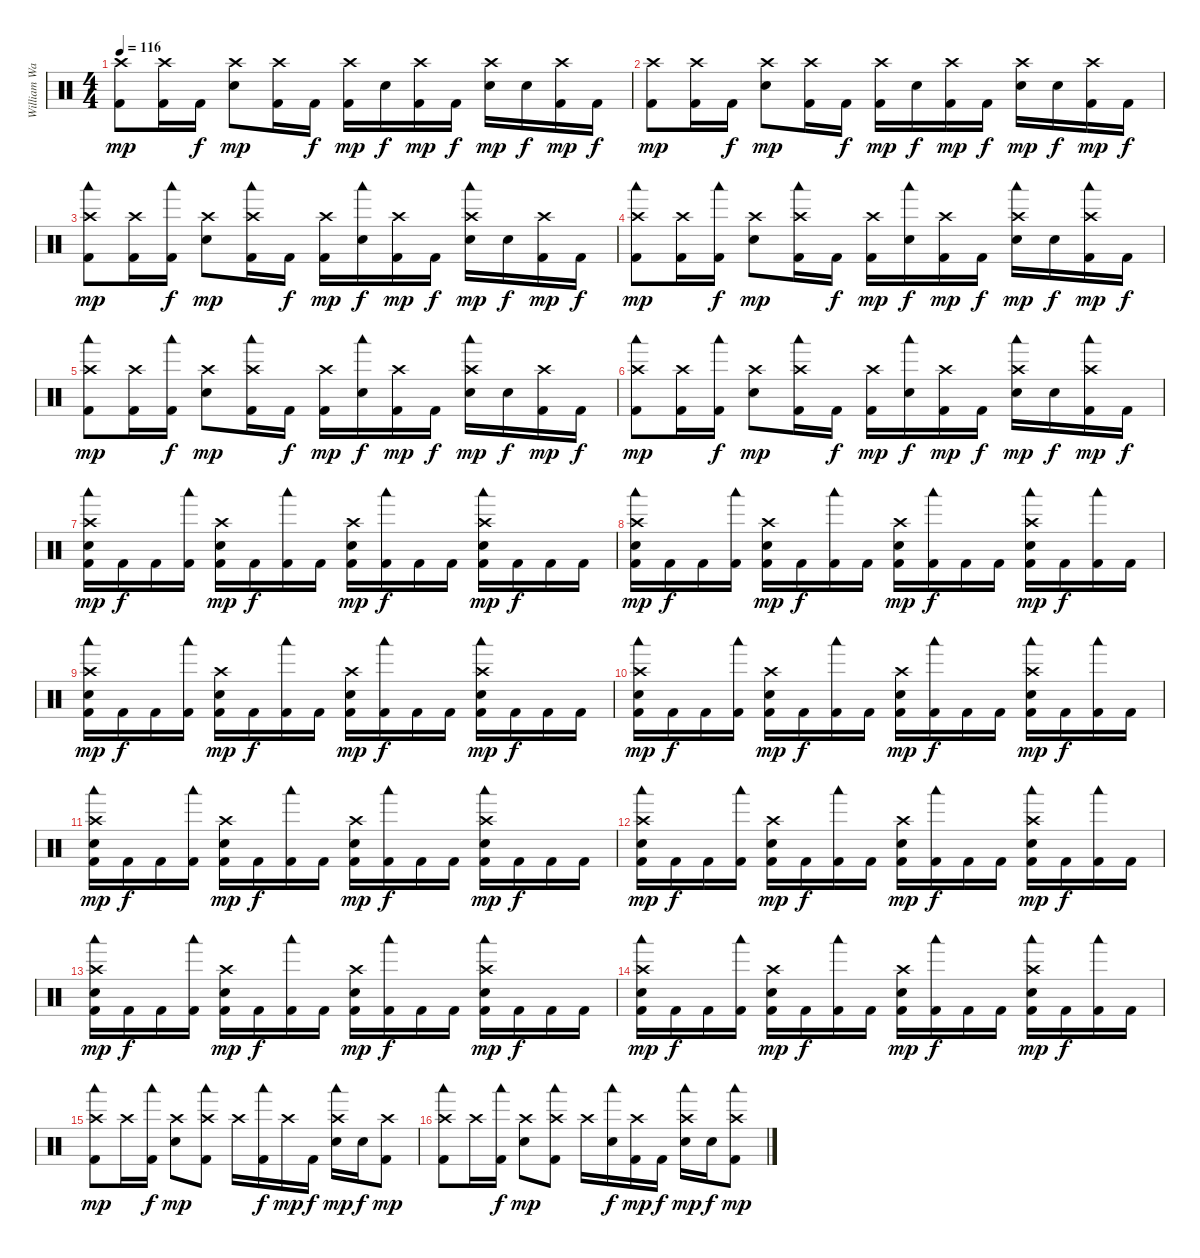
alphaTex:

\track ("William Ward" "William Wa") {instrument percussion}
\staff {score}
\articulation defaults
\ts (4 4)
\tempo 116
\clef neutral
\ks c
("Crash high (hit)" "Kick (hit) 2").8{dy mp} ("Crash high (hit)" "Kick (hit) 2").16 "Kick (hit) 2".16{dy f} ("Crash high (hit)" "Snare (hit) 2").8{dy mp} ("Crash high (hit)" "Kick (hit) 2").16 "Kick (hit) 2".16{dy f} ("Crash high (hit)" "Kick (hit) 2").16{dy mp} "Snare (hit) 2".16{dy f} ("Crash high (hit)" "Kick (hit) 2").16{dy mp} "Kick (hit) 2".16{dy f} ("Crash high (hit)" "Snare (hit) 2").16{dy mp} "Snare (hit) 2".16{dy f} ("Crash high (hit)" "Kick (hit) 2").16{dy mp} "Kick (hit) 2".16{dy f} |
("Crash high (hit)" "Kick (hit) 2").8{dy mp} ("Crash high (hit)" "Kick (hit) 2").16 "Kick (hit) 2".16{dy f} ("Crash high (hit)" "Snare (hit) 2").8{dy mp} ("Crash high (hit)" "Kick (hit) 2").16 "Kick (hit) 2".16{dy f} ("Crash high (hit)" "Kick (hit) 2").16{dy mp} "Snare (hit) 2".16{dy f} ("Crash high (hit)" "Kick (hit) 2").16{dy mp} "Kick (hit) 2".16{dy f} ("Crash high (hit)" "Snare (hit) 2").16{dy mp} "Snare (hit) 2".16{dy f} ("Crash high (hit)" "Kick (hit) 2").16{dy mp} "Kick (hit) 2".16{dy f} |
("Crash high (hit)" "Woodblock low (hit)" "Kick (hit) 2").8{dy mp} ("Crash high (hit)" "Kick (hit) 2").16 ("Woodblock low (hit)" "Kick (hit) 2").16{dy f} ("Crash high (hit)" "Snare (hit) 2").8{dy mp} ("Crash high (hit)" "Woodblock low (hit)" "Kick (hit) 2").16 "Kick (hit) 2".16{dy f} ("Crash high (hit)" "Kick (hit) 2").16{dy mp} ("Woodblock low (hit)" "Snare (hit) 2").16{dy f} ("Crash high (hit)" "Kick (hit) 2").16{dy mp} "Kick (hit) 2".16{dy f} ("Crash high (hit)" "Woodblock low (hit)" "Snare (hit) 2").16{dy mp} "Snare (hit) 2".16{dy f} ("Crash high (hit)" "Kick (hit) 2").16{dy mp} "Kick (hit) 2".16{dy f} |
("Crash high (hit)" "Woodblock low (hit)" "Kick (hit) 2").8{dy mp} ("Crash high (hit)" "Kick (hit) 2").16 ("Woodblock low (hit)" "Kick (hit) 2").16{dy f} ("Crash high (hit)" "Snare (hit) 2").8{dy mp} ("Crash high (hit)" "Woodblock low (hit)" "Kick (hit) 2").16 "Kick (hit) 2".16{dy f} ("Crash high (hit)" "Kick (hit) 2").16{dy mp} ("Woodblock low (hit)" "Snare (hit) 2").16{dy f} ("Crash high (hit)" "Kick (hit) 2").16{dy mp} "Kick (hit) 2".16{dy f} ("Crash high (hit)" "Woodblock low (hit)" "Snare (hit) 2").16{dy mp} "Snare (hit) 2".16{dy f} ("Crash high (hit)" "Woodblock low (hit)" "Kick (hit) 2").16{dy mp} "Kick (hit) 2".16{dy f} |
("Crash high (hit)" "Woodblock low (hit)" "Kick (hit) 2").8{dy mp} ("Crash high (hit)" "Kick (hit) 2").16 ("Woodblock low (hit)" "Kick (hit) 2").16{dy f} ("Crash high (hit)" "Snare (hit) 2").8{dy mp} ("Crash high (hit)" "Woodblock low (hit)" "Kick (hit) 2").16 "Kick (hit) 2".16{dy f} ("Crash high (hit)" "Kick (hit) 2").16{dy mp} ("Woodblock low (hit)" "Snare (hit) 2").16{dy f} ("Crash high (hit)" "Kick (hit) 2").16{dy mp} "Kick (hit) 2".16{dy f} ("Crash high (hit)" "Woodblock low (hit)" "Snare (hit) 2").16{dy mp} "Snare (hit) 2".16{dy f} ("Crash high (hit)" "Kick (hit) 2").16{dy mp} "Kick (hit) 2".16{dy f} |
("Crash high (hit)" "Woodblock low (hit)" "Kick (hit) 2").8{dy mp} ("Crash high (hit)" "Kick (hit) 2").16 ("Woodblock low (hit)" "Kick (hit) 2").16{dy f} ("Crash high (hit)" "Snare (hit) 2").8{dy mp} ("Crash high (hit)" "Woodblock low (hit)" "Kick (hit) 2").16 "Kick (hit) 2".16{dy f} ("Crash high (hit)" "Kick (hit) 2").16{dy mp} ("Woodblock low (hit)" "Snare (hit) 2").16{dy f} ("Crash high (hit)" "Kick (hit) 2").16{dy mp} "Kick (hit) 2".16{dy f} ("Crash high (hit)" "Woodblock low (hit)" "Snare (hit) 2").16{dy mp} "Snare (hit) 2".16{dy f} ("Crash high (hit)" "Woodblock low (hit)" "Kick (hit) 2").16{dy mp} "Kick (hit) 2".16{dy f} |
("Crash high (hit)" "Woodblock low (hit)" "Snare (hit) 2" "Kick (hit) 2").16{dy mp} "Kick (hit) 2".16{dy f} "Kick (hit) 2".16 ("Woodblock low (hit)" "Kick (hit) 2").16 ("Crash high (hit)" "Snare (hit) 2" "Kick (hit) 2").16{dy mp} "Kick (hit) 2".16{dy f} ("Woodblock low (hit)" "Kick (hit) 2").16 "Kick (hit) 2".16 ("Crash high (hit)" "Snare (hit) 2" "Kick (hit) 2").16{dy mp} ("Woodblock low (hit)" "Kick (hit) 2").16{dy f} "Kick (hit) 2".16 "Kick (hit) 2".16 ("Crash high (hit)" "Woodblock low (hit)" "Snare (hit) 2" "Kick (hit) 2").16{dy mp} "Kick (hit) 2".16{dy f} "Kick (hit) 2".16 "Kick (hit) 2".16 |
("Crash high (hit)" "Woodblock low (hit)" "Snare (hit) 2" "Kick (hit) 2").16{dy mp} "Kick (hit) 2".16{dy f} "Kick (hit) 2".16 ("Woodblock low (hit)" "Kick (hit) 2").16 ("Crash high (hit)" "Snare (hit) 2" "Kick (hit) 2").16{dy mp} "Kick (hit) 2".16{dy f} ("Woodblock low (hit)" "Kick (hit) 2").16 "Kick (hit) 2".16 ("Crash high (hit)" "Snare (hit) 2" "Kick (hit) 2").16{dy mp} ("Woodblock low (hit)" "Kick (hit) 2").16{dy f} "Kick (hit) 2".16 "Kick (hit) 2".16 ("Crash high (hit)" "Woodblock low (hit)" "Snare (hit) 2" "Kick (hit) 2").16{dy mp} "Kick (hit) 2".16{dy f} ("Woodblock low (hit)" "Kick (hit) 2").16 "Kick (hit) 2".16 |
("Crash high (hit)" "Woodblock low (hit)" "Snare (hit) 2" "Kick (hit) 2").16{dy mp} "Kick (hit) 2".16{dy f} "Kick (hit) 2".16 ("Woodblock low (hit)" "Kick (hit) 2").16 ("Crash high (hit)" "Snare (hit) 2" "Kick (hit) 2").16{dy mp} "Kick (hit) 2".16{dy f} ("Woodblock low (hit)" "Kick (hit) 2").16 "Kick (hit) 2".16 ("Crash high (hit)" "Snare (hit) 2" "Kick (hit) 2").16{dy mp} ("Woodblock low (hit)" "Kick (hit) 2").16{dy f} "Kick (hit) 2".16 "Kick (hit) 2".16 ("Crash high (hit)" "Woodblock low (hit)" "Snare (hit) 2" "Kick (hit) 2").16{dy mp} "Kick (hit) 2".16{dy f} "Kick (hit) 2".16 "Kick (hit) 2".16 |
("Crash high (hit)" "Woodblock low (hit)" "Snare (hit) 2" "Kick (hit) 2").16{dy mp} "Kick (hit) 2".16{dy f} "Kick (hit) 2".16 ("Woodblock low (hit)" "Kick (hit) 2").16 ("Crash high (hit)" "Snare (hit) 2" "Kick (hit) 2").16{dy mp} "Kick (hit) 2".16{dy f} ("Woodblock low (hit)" "Kick (hit) 2").16 "Kick (hit) 2".16 ("Crash high (hit)" "Snare (hit) 2" "Kick (hit) 2").16{dy mp} ("Woodblock low (hit)" "Kick (hit) 2").16{dy f} "Kick (hit) 2".16 "Kick (hit) 2".16 ("Crash high (hit)" "Woodblock low (hit)" "Snare (hit) 2" "Kick (hit) 2").16{dy mp} "Kick (hit) 2".16{dy f} ("Woodblock low (hit)" "Kick (hit) 2").16 "Kick (hit) 2".16 |
("Crash high (hit)" "Woodblock low (hit)" "Snare (hit) 2" "Kick (hit) 2").16{dy mp} "Kick (hit) 2".16{dy f} "Kick (hit) 2".16 ("Woodblock low (hit)" "Kick (hit) 2").16 ("Crash high (hit)" "Snare (hit) 2" "Kick (hit) 2").16{dy mp} "Kick (hit) 2".16{dy f} ("Woodblock low (hit)" "Kick (hit) 2").16 "Kick (hit) 2".16 ("Crash high (hit)" "Snare (hit) 2" "Kick (hit) 2").16{dy mp} ("Woodblock low (hit)" "Kick (hit) 2").16{dy f} "Kick (hit) 2".16 "Kick (hit) 2".16 ("Crash high (hit)" "Woodblock low (hit)" "Snare (hit) 2" "Kick (hit) 2").16{dy mp} "Kick (hit) 2".16{dy f} "Kick (hit) 2".16 "Kick (hit) 2".16 |
("Crash high (hit)" "Woodblock low (hit)" "Snare (hit) 2" "Kick (hit) 2").16{dy mp} "Kick (hit) 2".16{dy f} "Kick (hit) 2".16 ("Woodblock low (hit)" "Kick (hit) 2").16 ("Crash high (hit)" "Snare (hit) 2" "Kick (hit) 2").16{dy mp} "Kick (hit) 2".16{dy f} ("Woodblock low (hit)" "Kick (hit) 2").16 "Kick (hit) 2".16 ("Crash high (hit)" "Snare (hit) 2" "Kick (hit) 2").16{dy mp} ("Woodblock low (hit)" "Kick (hit) 2").16{dy f} "Kick (hit) 2".16 "Kick (hit) 2".16 ("Crash high (hit)" "Woodblock low (hit)" "Snare (hit) 2" "Kick (hit) 2").16{dy mp} "Kick (hit) 2".16{dy f} ("Woodblock low (hit)" "Kick (hit) 2").16 "Kick (hit) 2".16 |
("Crash high (hit)" "Woodblock low (hit)" "Snare (hit) 2" "Kick (hit) 2").16{dy mp} "Kick (hit) 2".16{dy f} "Kick (hit) 2".16 ("Woodblock low (hit)" "Kick (hit) 2").16 ("Crash high (hit)" "Snare (hit) 2" "Kick (hit) 2").16{dy mp} "Kick (hit) 2".16{dy f} ("Woodblock low (hit)" "Kick (hit) 2").16 "Kick (hit) 2".16 ("Crash high (hit)" "Snare (hit) 2" "Kick (hit) 2").16{dy mp} ("Woodblock low (hit)" "Kick (hit) 2").16{dy f} "Kick (hit) 2".16 "Kick (hit) 2".16 ("Crash high (hit)" "Woodblock low (hit)" "Snare (hit) 2" "Kick (hit) 2").16{dy mp} "Kick (hit) 2".16{dy f} "Kick (hit) 2".16 "Kick (hit) 2".16 |
("Crash high (hit)" "Woodblock low (hit)" "Snare (hit) 2" "Kick (hit) 2").16{dy mp} "Kick (hit) 2".16{dy f} "Kick (hit) 2".16 ("Woodblock low (hit)" "Kick (hit) 2").16 ("Crash high (hit)" "Snare (hit) 2" "Kick (hit) 2").16{dy mp} "Kick (hit) 2".16{dy f} ("Woodblock low (hit)" "Kick (hit) 2").16 "Kick (hit) 2".16 ("Crash high (hit)" "Snare (hit) 2" "Kick (hit) 2").16{dy mp} ("Woodblock low (hit)" "Kick (hit) 2").16{dy f} "Kick (hit) 2".16 "Kick (hit) 2".16 ("Crash high (hit)" "Woodblock low (hit)" "Snare (hit) 2" "Kick (hit) 2").16{dy mp} "Kick (hit) 2".16{dy f} ("Woodblock low (hit)" "Kick (hit) 2").16 "Kick (hit) 2".16 |
("Crash high (hit)" "Woodblock low (hit)" "Kick (hit) 2").8{dy mp} "Crash high (hit)".16 ("Woodblock low (hit)" "Kick (hit) 2").16{dy f} ("Crash high (hit)" "Snare (hit) 2").8{dy mp} ("Crash high (hit)" "Woodblock low (hit)" "Kick (hit) 2").8 "Crash high (hit)".16 ("Woodblock low (hit)" "Kick (hit) 2").16{dy f} "Crash high (hit)".16{dy mp} "Kick (hit) 2".16{dy f} ("Crash high (hit)" "Woodblock low (hit)" "Snare (hit) 2").16{dy mp} "Snare (hit) 2".16{dy f} ("Crash high (hit)" "Kick (hit) 2").8{dy mp} |
("Crash high (hit)" "Woodblock low (hit)" "Kick (hit) 2").8 "Crash high (hit)".16 ("Woodblock low (hit)" "Kick (hit) 2").16{dy f} ("Crash high (hit)" "Snare (hit) 2").8{dy mp} ("Crash high (hit)" "Woodblock low (hit)" "Kick (hit) 2").8 "Crash high (hit)".16 ("Woodblock low (hit)" "Snare (hit) 2").16{dy f} ("Crash high (hit)" "Kick (hit) 2").16{dy mp} "Kick (hit) 2".16{dy f} ("Crash high (hit)" "Woodblock low (hit)" "Snare (hit) 2").16{dy mp} "Snare (hit) 2".16{dy f} ("Crash high (hit)" "Woodblock low (hit)" "Kick (hit) 2").8{dy mp}
